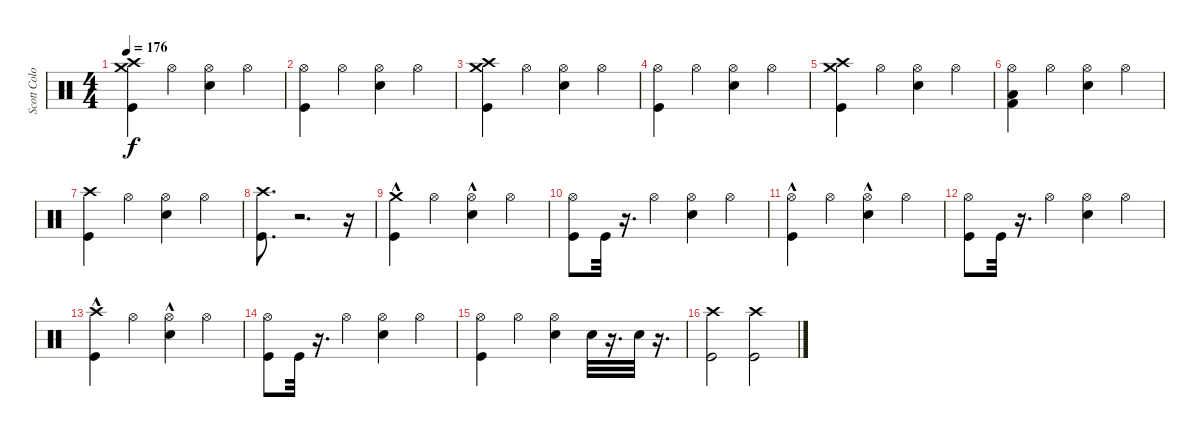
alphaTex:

\track ("Scott Colombus" "Scott Colo") {instrument percussion}
\staff {score}
\articulation defaults
\ts (4 4)
\tempo 176
\clef neutral
\ks c
("Crash medium (hit)" "Crash high (hit)" "Kick (hit)").4{dy f} "Hi-Hat (open)".4 ("Hi-Hat (open)" "Snare (hit) 2").4 "Hi-Hat (open)".4 |
("Hi-Hat (open)" "Kick (hit)").4 "Hi-Hat (open)".4 ("Hi-Hat (open)" "Snare (hit) 2").4 "Hi-Hat (open)".4 |
("Crash medium (hit)" "Crash high (hit)" "Kick (hit)").4 "Hi-Hat (open)".4 ("Hi-Hat (open)" "Snare (hit) 2").4 "Hi-Hat (open)".4 |
("Hi-Hat (open)" "Kick (hit)").4 "Hi-Hat (open)".4 ("Hi-Hat (open)" "Snare (hit) 2").4 "Hi-Hat (open)".4 |
("Crash medium (hit)" "Crash high (hit)" "Kick (hit)").4 "Hi-Hat (open)".4 ("Hi-Hat (open)" "Snare (hit) 2").4 "Hi-Hat (open)".4 |
("Low Floor Tom (hit)" "Hi-Hat (open)" "Kick (hit) 2").4 "Hi-Hat (open)".4 ("Hi-Hat (open)" "Snare (hit) 2").4 "Hi-Hat (open)".4 |
("Crash high (hit)" "Kick (hit)").4 "Hi-Hat (open)".4 ("Hi-Hat (open)" "Snare (hit) 2").4 "Hi-Hat (open)".4 |
("Crash high (hit)" "Kick (hit)").8{d} r.2{d} r.16 |
("Crash medium (hit)" "Kick (hit)"{hac}).4 "Hi-Hat (open)".4 ("Hi-Hat (open)" "Snare (hit) 2"{hac}).4 "Hi-Hat (open)".4 |
("Hi-Hat (open)" "Kick (hit)").8 "Kick (hit)".32 r.16{d} "Hi-Hat (open)".4 ("Hi-Hat (open)" "Snare (hit) 2").4 "Hi-Hat (open)".4 |
("Hi-Hat (open)" "Kick (hit)"{hac}).4 "Hi-Hat (open)".4 ("Hi-Hat (open)" "Snare (hit) 2"{hac}).4 "Hi-Hat (open)".4 |
("Hi-Hat (open)" "Kick (hit)").8 "Kick (hit)".32 r.16{d} "Hi-Hat (open)".4 ("Hi-Hat (open)" "Snare (hit) 2").4 "Hi-Hat (open)".4 |
("Kick (hit)"{hac} "Crash high (hit)").4 "Hi-Hat (open)".4 ("Hi-Hat (open)" "Snare (hit) 2"{hac}).4 "Hi-Hat (open)".4 |
("Kick (hit)" "Hi-Hat (open)").8 "Kick (hit)".32 r.16{d} "Hi-Hat (open)".4 ("Hi-Hat (open)" "Snare (hit) 2").4 "Hi-Hat (open)".4 |
("Kick (hit)" "Hi-Hat (open)").4 "Hi-Hat (open)".4 ("Hi-Hat (open)" "Snare (hit) 2").4 "Snare (hit) 2".32 r.16{d} "Snare (hit) 2".32 r.16{d} |
("Crash high (hit)" "Kick (hit)").2 ("Crash high (hit)" "Kick (hit)").2
